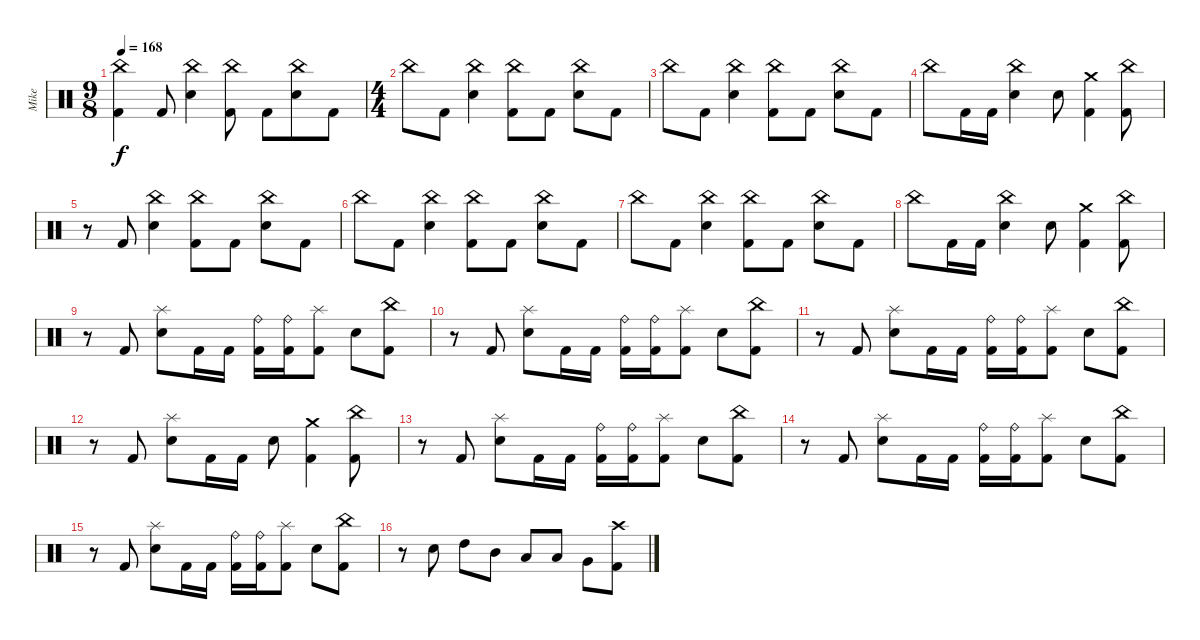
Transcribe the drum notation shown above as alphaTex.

\track ("Mike" "Mike") {instrument percussion}
\staff {score}
\articulation defaults
\ts (9 8)
\tempo 168
\clef neutral
\ks c
("Kick (hit) 2" "China (hit)").4{dy f} "Kick (hit) 2".8 ("Electric Snare (hit)" "China (hit)").4 ("Kick (hit) 2" "China (hit)").8 "Kick (hit) 2".8 ("Electric Snare (hit)" "China (hit)").8 "Kick (hit) 2".8 |
\ts (4 4)
"China (hit)".8 "Kick (hit) 2".8 ("Electric Snare (hit)" "China (hit)").4 ("Kick (hit) 2" "China (hit)").8 "Kick (hit) 2".8 ("Electric Snare (hit)" "China (hit)").8 "Kick (hit) 2".8 |
"China (hit)".8 "Kick (hit) 2".8 ("Electric Snare (hit)" "China (hit)").4 ("Kick (hit) 2" "China (hit)").8 "Kick (hit) 2".8 ("Electric Snare (hit)" "China (hit)").8 "Kick (hit) 2".8 |
"China (hit)".8 "Kick (hit) 2".16 "Kick (hit) 2".16 ("Electric Snare (hit)" "China (hit)").4 "Electric Snare (hit)".8 ("Kick (hit) 2" "Crash medium (hit)").4 ("Kick (hit) 2" "China (hit)").8 |
r.8 "Kick (hit) 2".8 ("Electric Snare (hit)" "China (hit)").4 ("Kick (hit) 2" "China (hit)").8 "Kick (hit) 2".8 ("Electric Snare (hit)" "China (hit)").8 "Kick (hit) 2".8 |
"China (hit)".8 "Kick (hit) 2".8 ("Electric Snare (hit)" "China (hit)").4 ("Kick (hit) 2" "China (hit)").8 "Kick (hit) 2".8 ("Electric Snare (hit)" "China (hit)").8 "Kick (hit) 2".8 |
"China (hit)".8 "Kick (hit) 2".8 ("Electric Snare (hit)" "China (hit)").4 ("Kick (hit) 2" "China (hit)").8 "Kick (hit) 2".8 ("Electric Snare (hit)" "China (hit)").8 "Kick (hit) 2".8 |
"China (hit)".8 "Kick (hit) 2".16 "Kick (hit) 2".16 ("Electric Snare (hit)" "China (hit)").4 "Electric Snare (hit)".8 ("Kick (hit) 2" "Crash medium (hit)").4 ("Kick (hit) 2" "China (hit)").8 |
r.8 "Kick (hit) 2".8 ("Electric Snare (hit)" "Splash (hit)").8 "Kick (hit) 2".16 "Kick (hit) 2".16 ("Kick (hit) 2" "Ride (bell)").16 ("Kick (hit) 2" "Ride (bell)").16 ("Kick (hit) 2" "Splash (hit)").8 "Electric Snare (hit)".8 ("Kick (hit) 2" "China (hit)").8 |
r.8 "Kick (hit) 2".8 ("Electric Snare (hit)" "Splash (hit)").8 "Kick (hit) 2".16 "Kick (hit) 2".16 ("Kick (hit) 2" "Ride (bell)").16 ("Kick (hit) 2" "Ride (bell)").16 ("Kick (hit) 2" "Splash (hit)").8 "Electric Snare (hit)".8 ("Kick (hit) 2" "China (hit)").8 |
r.8 "Kick (hit) 2".8 ("Electric Snare (hit)" "Splash (hit)").8 "Kick (hit) 2".16 "Kick (hit) 2".16 ("Kick (hit) 2" "Ride (bell)").16 ("Kick (hit) 2" "Ride (bell)").16 ("Kick (hit) 2" "Splash (hit)").8 "Electric Snare (hit)".8 ("Kick (hit) 2" "China (hit)").8 |
r.8 "Kick (hit) 2".8 ("Electric Snare (hit)" "Splash (hit)").8 "Kick (hit) 2".16 "Kick (hit) 2".16 "Electric Snare (hit)".8 ("Kick (hit) 2" "Crash medium (hit)").4 ("Kick (hit) 2" "China (hit)").8 |
r.8 "Kick (hit) 2".8 ("Electric Snare (hit)" "Splash (hit)").8 "Kick (hit) 2".16 "Kick (hit) 2".16 ("Kick (hit) 2" "Ride (bell)").16 ("Kick (hit) 2" "Ride (bell)").16 ("Kick (hit) 2" "Splash (hit)").8 "Electric Snare (hit)".8 ("Kick (hit) 2" "China (hit)").8 |
r.8 "Kick (hit) 2".8 ("Electric Snare (hit)" "Splash (hit)").8 "Kick (hit) 2".16 "Kick (hit) 2".16 ("Kick (hit) 2" "Ride (bell)").16 ("Kick (hit) 2" "Ride (bell)").16 ("Kick (hit) 2" "Splash (hit)").8 "Electric Snare (hit)".8 ("Kick (hit) 2" "China (hit)").8 |
r.8 "Kick (hit) 2".8 ("Electric Snare (hit)" "Splash (hit)").8 "Kick (hit) 2".16 "Kick (hit) 2".16 ("Kick (hit) 2" "Ride (bell)").16 ("Kick (hit) 2" "Ride (bell)").16 ("Kick (hit) 2" "Splash (hit)").8 "Electric Snare (hit)".8 ("Kick (hit) 2" "China (hit)").8 |
r.8 "Electric Snare (hit)".8 "High Tom (hit)".8 "Mid Tom (hit)".8 "Low Tom (hit)".8 "Low Tom (hit)".8 "Very Low Tom (hit)".8 ("Kick (hit) 2" "Crash high (hit)").8
